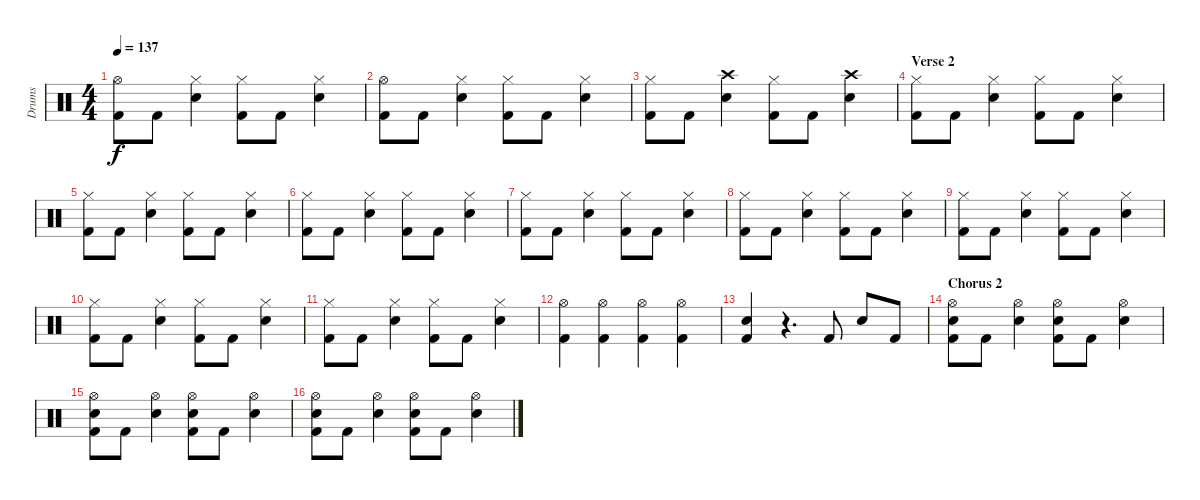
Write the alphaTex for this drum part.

\track ("Drums" "Drums") {instrument percussion}
\staff {score}
\articulation defaults
\ts (4 4)
\tempo 137
\clef neutral
\ks c
("Hi-Hat (open)" "Kick (hit) 2").8{dy f} "Kick (hit) 2".8 ("Hi-Hat (closed)" "Electric Snare (hit)").4 ("Hi-Hat (closed)" "Kick (hit) 2").8 "Kick (hit) 2".8 ("Hi-Hat (closed)" "Electric Snare (hit)").4 |
("Hi-Hat (open)" "Kick (hit) 2").8 "Kick (hit) 2".8 ("Hi-Hat (closed)" "Electric Snare (hit)").4 ("Hi-Hat (closed)" "Kick (hit) 2").8 "Kick (hit) 2".8 ("Hi-Hat (closed)" "Electric Snare (hit)").4 |
("Hi-Hat (closed)" "Kick (hit) 2").8 "Kick (hit) 2".8 ("Crash high (hit)" "Electric Snare (hit)").4 ("Hi-Hat (closed)" "Kick (hit) 2").8 "Kick (hit) 2".8 ("Crash high (hit)" "Electric Snare (hit)").4 |
\section ("" "Verse 2")
("Hi-Hat (closed)" "Kick (hit) 2").8 "Kick (hit) 2".8 ("Hi-Hat (closed)" "Electric Snare (hit)").4 ("Hi-Hat (closed)" "Kick (hit) 2").8 "Kick (hit) 2".8 ("Hi-Hat (closed)" "Electric Snare (hit)").4 |
("Hi-Hat (closed)" "Kick (hit) 2").8 "Kick (hit) 2".8 ("Hi-Hat (closed)" "Electric Snare (hit)").4 ("Hi-Hat (closed)" "Kick (hit) 2").8 "Kick (hit) 2".8 ("Hi-Hat (closed)" "Electric Snare (hit)").4 |
("Hi-Hat (closed)" "Kick (hit) 2").8 "Kick (hit) 2".8 ("Hi-Hat (closed)" "Electric Snare (hit)").4 ("Hi-Hat (closed)" "Kick (hit) 2").8 "Kick (hit) 2".8 ("Hi-Hat (closed)" "Electric Snare (hit)").4 |
("Hi-Hat (closed)" "Kick (hit) 2").8 "Kick (hit) 2".8 ("Hi-Hat (closed)" "Electric Snare (hit)").4 ("Hi-Hat (closed)" "Kick (hit) 2").8 "Kick (hit) 2".8 ("Hi-Hat (closed)" "Electric Snare (hit)").4 |
("Hi-Hat (closed)" "Kick (hit) 2").8 "Kick (hit) 2".8 ("Hi-Hat (closed)" "Electric Snare (hit)").4 ("Hi-Hat (closed)" "Kick (hit) 2").8 "Kick (hit) 2".8 ("Hi-Hat (closed)" "Electric Snare (hit)").4 |
("Hi-Hat (closed)" "Kick (hit) 2").8 "Kick (hit) 2".8 ("Hi-Hat (closed)" "Electric Snare (hit)").4 ("Hi-Hat (closed)" "Kick (hit) 2").8 "Kick (hit) 2".8 ("Hi-Hat (closed)" "Electric Snare (hit)").4 |
("Hi-Hat (closed)" "Kick (hit) 2").8 "Kick (hit) 2".8 ("Hi-Hat (closed)" "Electric Snare (hit)").4 ("Hi-Hat (closed)" "Kick (hit) 2").8 "Kick (hit) 2".8 ("Hi-Hat (closed)" "Electric Snare (hit)").4 |
("Hi-Hat (closed)" "Kick (hit) 2").8 "Kick (hit) 2".8 ("Hi-Hat (closed)" "Electric Snare (hit)").4 ("Hi-Hat (closed)" "Kick (hit) 2").8 "Kick (hit) 2".8 ("Hi-Hat (closed)" "Electric Snare (hit)").4 |
("Hi-Hat (open)" "Kick (hit) 2").4 ("Hi-Hat (open)" "Kick (hit) 2").4 ("Hi-Hat (open)" "Kick (hit) 2").4 ("Hi-Hat (open)" "Kick (hit) 2").4 |
("Electric Snare (hit)" "Kick (hit) 2").4 r.4{d} "Kick (hit) 2".8 "Electric Snare (hit)".8 "Kick (hit) 2".8 |
\section ("" "Chorus 2")
("Hi-Hat (open)" "Electric Snare (hit)" "Kick (hit) 2").8 "Kick (hit) 2".8 ("Hi-Hat (open)" "Electric Snare (hit)").4 ("Hi-Hat (open)" "Electric Snare (hit)" "Kick (hit) 2").8 "Kick (hit) 2".8 ("Hi-Hat (open)" "Electric Snare (hit)").4 |
("Hi-Hat (open)" "Electric Snare (hit)" "Kick (hit) 2").8 "Kick (hit) 2".8 ("Hi-Hat (open)" "Electric Snare (hit)").4 ("Hi-Hat (open)" "Electric Snare (hit)" "Kick (hit) 2").8 "Kick (hit) 2".8 ("Hi-Hat (open)" "Electric Snare (hit)").4 |
("Hi-Hat (open)" "Electric Snare (hit)" "Kick (hit) 2").8 "Kick (hit) 2".8 ("Hi-Hat (open)" "Electric Snare (hit)").4 ("Hi-Hat (open)" "Electric Snare (hit)" "Kick (hit) 2").8 "Kick (hit) 2".8 ("Hi-Hat (open)" "Electric Snare (hit)").4
